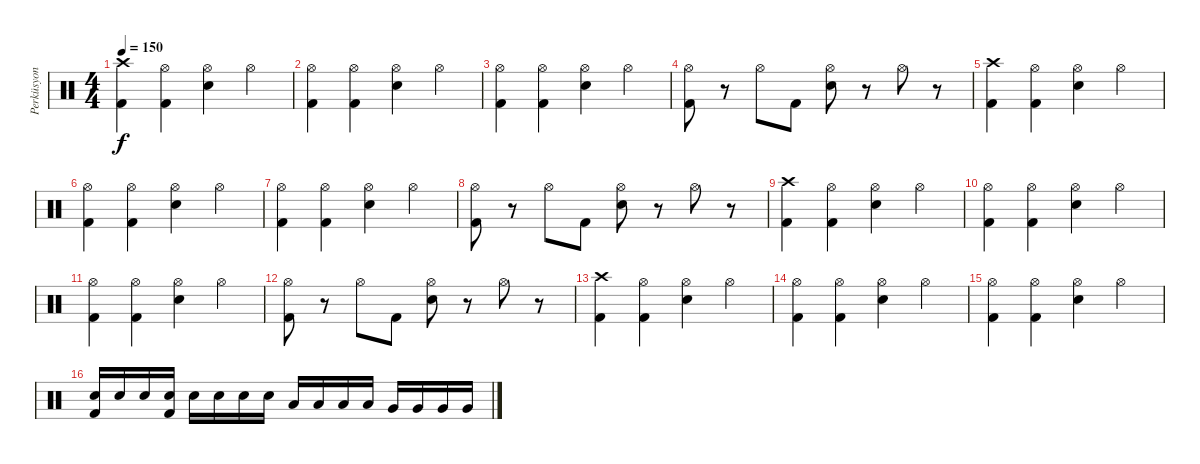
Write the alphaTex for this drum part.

\track ("Perküsyon" "Perküsyon") {instrument percussion}
\staff {score}
\articulation defaults
\ts (4 4)
\tempo 150
\clef neutral
\ks c
("Crash high (hit)" "Kick (hit) 2").4{dy f} ("Hi-Hat (open)" "Kick (hit) 2").4 ("Hi-Hat (open)" "Electric Snare (hit)").4 "Hi-Hat (open)".4 |
("Hi-Hat (open)" "Kick (hit) 2").4 ("Hi-Hat (open)" "Kick (hit) 2").4 ("Hi-Hat (open)" "Electric Snare (hit)").4 "Hi-Hat (open)".4 |
("Hi-Hat (open)" "Kick (hit) 2").4 ("Hi-Hat (open)" "Kick (hit) 2").4 ("Hi-Hat (open)" "Electric Snare (hit)").4 "Hi-Hat (open)".4 |
("Hi-Hat (open)" "Kick (hit) 2").8 r.8 "Hi-Hat (open)".8 "Kick (hit) 2".8 ("Hi-Hat (open)" "Electric Snare (hit)").8 r.8 "Hi-Hat (open)".8 r.8 |
("Crash high (hit)" "Kick (hit) 2").4 ("Hi-Hat (open)" "Kick (hit) 2").4 ("Hi-Hat (open)" "Electric Snare (hit)").4 "Hi-Hat (open)".4 |
("Hi-Hat (open)" "Kick (hit) 2").4 ("Hi-Hat (open)" "Kick (hit) 2").4 ("Hi-Hat (open)" "Electric Snare (hit)").4 "Hi-Hat (open)".4 |
("Hi-Hat (open)" "Kick (hit) 2").4 ("Hi-Hat (open)" "Kick (hit) 2").4 ("Hi-Hat (open)" "Electric Snare (hit)").4 "Hi-Hat (open)".4 |
("Hi-Hat (open)" "Kick (hit) 2").8 r.8 "Hi-Hat (open)".8 "Kick (hit) 2".8 ("Hi-Hat (open)" "Electric Snare (hit)").8 r.8 "Hi-Hat (open)".8 r.8 |
("Crash high (hit)" "Kick (hit) 2").4 ("Hi-Hat (open)" "Kick (hit) 2").4 ("Hi-Hat (open)" "Electric Snare (hit)").4 "Hi-Hat (open)".4 |
("Hi-Hat (open)" "Kick (hit) 2").4 ("Hi-Hat (open)" "Kick (hit) 2").4 ("Hi-Hat (open)" "Electric Snare (hit)").4 "Hi-Hat (open)".4 |
("Hi-Hat (open)" "Kick (hit) 2").4 ("Hi-Hat (open)" "Kick (hit) 2").4 ("Hi-Hat (open)" "Electric Snare (hit)").4 "Hi-Hat (open)".4 |
("Hi-Hat (open)" "Kick (hit) 2").8 r.8 "Hi-Hat (open)".8 "Kick (hit) 2".8 ("Hi-Hat (open)" "Electric Snare (hit)").8 r.8 "Hi-Hat (open)".8 r.8 |
("Crash high (hit)" "Kick (hit) 2").4 ("Hi-Hat (open)" "Kick (hit) 2").4 ("Hi-Hat (open)" "Electric Snare (hit)").4 "Hi-Hat (open)".4 |
("Hi-Hat (open)" "Kick (hit) 2").4 ("Hi-Hat (open)" "Kick (hit) 2").4 ("Hi-Hat (open)" "Electric Snare (hit)").4 "Hi-Hat (open)".4 |
("Hi-Hat (open)" "Kick (hit) 2").4 ("Hi-Hat (open)" "Kick (hit) 2").4 ("Hi-Hat (open)" "Electric Snare (hit)").4 "Hi-Hat (open)".4 |
("Electric Snare (hit)" "Kick (hit) 2").16 "Electric Snare (hit)".16 "Electric Snare (hit)".16 ("Electric Snare (hit)" "Kick (hit) 2").16 "Electric Snare (hit)".16 "Electric Snare (hit)".16 "Electric Snare (hit)".16 "Electric Snare (hit)".16 "Low Tom (hit)".16 "Low Tom (hit)".16 "Low Tom (hit)".16 "Low Tom (hit)".16 "Very Low Tom (hit)".16 "Very Low Tom (hit)".16 "Very Low Tom (hit)".16 "Very Low Tom (hit)".16
